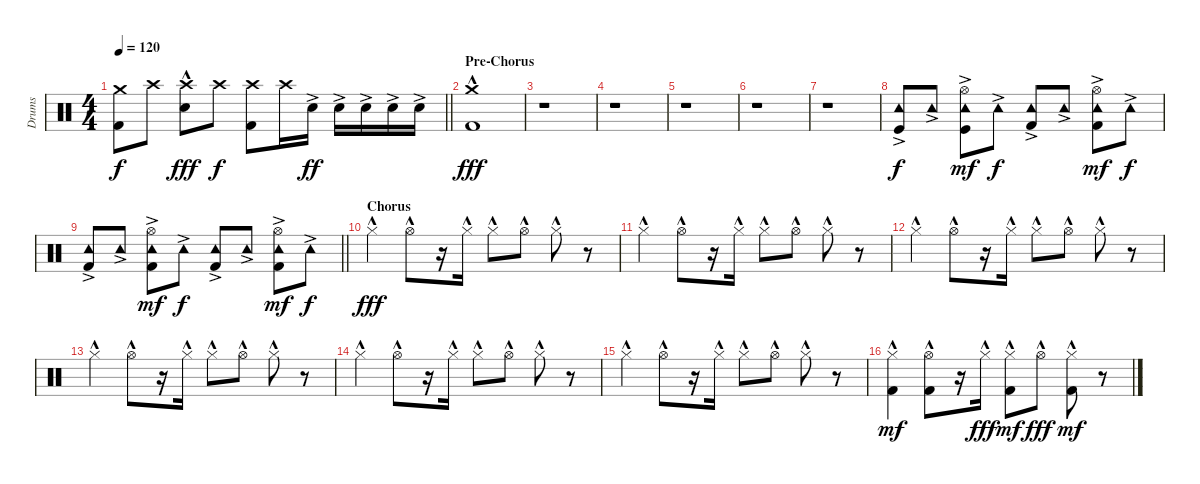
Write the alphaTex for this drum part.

\track ("Drums" "Drums") {instrument percussion}
\staff {score}
\articulation defaults
\ts (4 4)
\tempo 120
\clef neutral
\barLineRight lightlight
\ks c
("Crash medium (hit)" "Kick (hit) 2").8{dy f} "Crash high (hit)".8 ("Crash high (hit)" "Electric Snare (hit)"{hac}).8{dy fff} "Crash high (hit)".8{dy f} ("Crash high (hit)" "Kick (hit) 2").8 "Crash high (hit)".16 "Electric Snare (hit)"{ac}.16{dy ff} "Electric Snare (hit)"{ac}.16 "Electric Snare (hit)"{ac}.16 "Electric Snare (hit)"{ac}.16 "Electric Snare (hit)"{ac}.16 |
\section ("" "Pre-Chorus")
("Kick (hit) 2"{hac} "Crash medium (hit)"{hac}).1{dy fff} |
r.1 |
r.1 |
r.1 |
r.1 |
r.1 |
("Tambourine (hit)"{ac} "Kick (hit)").8{dy f volume 16} "Tambourine (hit)"{ac}.8 ("Tambourine (hit)"{ac} "Hi-Hat (open)" "Kick (hit)").8{dy mf} "Tambourine (hit)"{ac}.8{dy f} ("Tambourine (hit)"{ac} "Kick (hit) 2").8 "Tambourine (hit)"{ac}.8 ("Tambourine (hit)"{ac} "Hi-Hat (open)" "Kick (hit) 2").8{dy mf} "Tambourine (hit)"{ac}.8{dy f} |
\barLineRight lightlight
("Tambourine (hit)"{ac} "Kick (hit) 2").8 "Tambourine (hit)"{ac}.8 ("Tambourine (hit)"{ac} "Hi-Hat (open)" "Kick (hit) 2").8{dy mf} "Tambourine (hit)"{ac}.8{dy f} ("Tambourine (hit)"{ac} "Kick (hit) 2").8 "Tambourine (hit)"{ac}.8 ("Tambourine (hit)"{ac} "Hi-Hat (open)" "Kick (hit) 2").8{dy mf} "Tambourine (hit)"{ac}.8{dy f} |
\section ("" "Chorus")
"Hi-Hat (closed)"{hac}.4{dy fff volume 16} "Hi-Hat (open)"{hac}.8 r.16 "Hi-Hat (closed)"{hac}.16 "Hi-Hat (closed)"{hac}.8 "Hi-Hat (open)"{hac}.8 "Hi-Hat (closed)"{hac}.8 r.8 |
"Hi-Hat (closed)"{hac}.4 "Hi-Hat (open)"{hac}.8 r.16 "Hi-Hat (closed)"{hac}.16 "Hi-Hat (closed)"{hac}.8 "Hi-Hat (open)"{hac}.8 "Hi-Hat (closed)"{hac}.8 r.8 |
"Hi-Hat (closed)"{hac}.4 "Hi-Hat (open)"{hac}.8 r.16 "Hi-Hat (closed)"{hac}.16 "Hi-Hat (closed)"{hac}.8 "Hi-Hat (open)"{hac}.8 "Hi-Hat (closed)"{hac}.8 r.8 |
"Hi-Hat (closed)"{hac}.4 "Hi-Hat (open)"{hac}.8 r.16 "Hi-Hat (closed)"{hac}.16 "Hi-Hat (closed)"{hac}.8 "Hi-Hat (open)"{hac}.8 "Hi-Hat (closed)"{hac}.8 r.8 |
"Hi-Hat (closed)"{hac}.4 "Hi-Hat (open)"{hac}.8 r.16 "Hi-Hat (closed)"{hac}.16 "Hi-Hat (closed)"{hac}.8 "Hi-Hat (open)"{hac}.8 "Hi-Hat (closed)"{hac}.8 r.8 |
"Hi-Hat (closed)"{hac}.4 "Hi-Hat (open)"{hac}.8 r.16 "Hi-Hat (closed)"{hac}.16 "Hi-Hat (closed)"{hac}.8 "Hi-Hat (open)"{hac}.8 "Hi-Hat (closed)"{hac}.8 r.8 |
("Hi-Hat (closed)"{hac} "Kick (hit) 2").4{dy mf} ("Hi-Hat (open)"{hac} "Kick (hit) 2").8 r.16 "Hi-Hat (closed)"{hac}.16{dy fff} ("Hi-Hat (closed)"{hac} "Kick (hit) 2").8{dy mf} "Hi-Hat (open)"{hac}.8{dy fff} ("Hi-Hat (closed)"{hac} "Kick (hit) 2").8{dy mf} r.8
